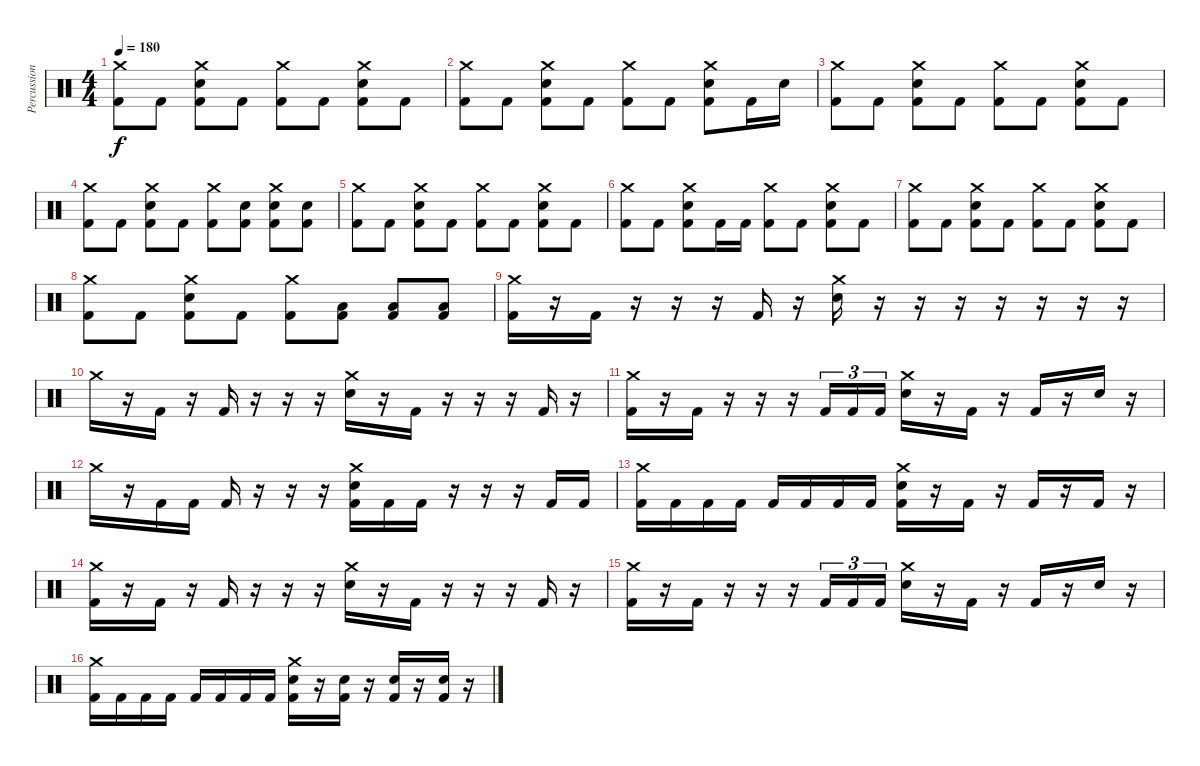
\track ("Percussion" "Percussion") {instrument percussion}
\staff {score}
\articulation defaults
\ts (4 4)
\tempo 180
\clef neutral
\ks c
("Crash medium (hit)" "Kick (hit) 2").8{dy f} "Kick (hit) 2".8 ("Crash medium (hit)" "Electric Snare (hit)" "Kick (hit) 2").8 "Kick (hit) 2".8 ("Crash medium (hit)" "Kick (hit) 2").8 "Kick (hit) 2".8 ("Crash medium (hit)" "Electric Snare (hit)" "Kick (hit) 2").8 "Kick (hit) 2".8 |
("Crash medium (hit)" "Kick (hit) 2").8 "Kick (hit) 2".8 ("Crash medium (hit)" "Electric Snare (hit)" "Kick (hit) 2").8 "Kick (hit) 2".8 ("Crash medium (hit)" "Kick (hit) 2").8 "Kick (hit) 2".8 ("Crash medium (hit)" "Electric Snare (hit)" "Kick (hit) 2").8 "Kick (hit) 2".16 "Electric Snare (hit)".16 |
("Crash medium (hit)" "Kick (hit) 2").8 "Kick (hit) 2".8 ("Crash medium (hit)" "Electric Snare (hit)" "Kick (hit) 2").8 "Kick (hit) 2".8 ("Crash medium (hit)" "Kick (hit) 2").8 "Kick (hit) 2".8 ("Crash medium (hit)" "Electric Snare (hit)" "Kick (hit) 2").8 "Kick (hit) 2".8 |
("Crash medium (hit)" "Kick (hit) 2").8 "Kick (hit) 2".8 ("Crash medium (hit)" "Electric Snare (hit)" "Kick (hit) 2").8 "Kick (hit) 2".8 ("Crash medium (hit)" "Kick (hit) 2").8 ("Electric Snare (hit)" "Kick (hit) 2").8 ("Crash medium (hit)" "Electric Snare (hit)" "Kick (hit) 2").8 ("Electric Snare (hit)" "Kick (hit) 2").8 |
("Crash medium (hit)" "Kick (hit) 2").8 "Kick (hit) 2".8 ("Crash medium (hit)" "Electric Snare (hit)" "Kick (hit) 2").8 "Kick (hit) 2".8 ("Crash medium (hit)" "Kick (hit) 2").8 "Kick (hit) 2".8 ("Crash medium (hit)" "Electric Snare (hit)" "Kick (hit) 2").8 "Kick (hit) 2".8 |
("Crash medium (hit)" "Kick (hit) 2").8 "Kick (hit) 2".8 ("Crash medium (hit)" "Electric Snare (hit)" "Kick (hit) 2").8 "Kick (hit) 2".16 "Kick (hit) 2".16 ("Crash medium (hit)" "Kick (hit) 2").8 "Kick (hit) 2".8 ("Crash medium (hit)" "Electric Snare (hit)" "Kick (hit) 2").8 "Kick (hit) 2".8 |
("Crash medium (hit)" "Kick (hit) 2").8 "Kick (hit) 2".8 ("Crash medium (hit)" "Electric Snare (hit)" "Kick (hit) 2").8 "Kick (hit) 2".8 ("Crash medium (hit)" "Kick (hit) 2").8 "Kick (hit) 2".8 ("Crash medium (hit)" "Electric Snare (hit)" "Kick (hit) 2").8 "Kick (hit) 2".8 |
("Crash medium (hit)" "Kick (hit) 2").8 "Kick (hit) 2".8 ("Crash medium (hit)" "Electric Snare (hit)" "Kick (hit) 2").8 "Kick (hit) 2".8 ("Crash medium (hit)" "Kick (hit) 2").8 ("Low Floor Tom (hit)" "Kick (hit) 2").8 ("Low Floor Tom (hit)" "Kick (hit) 2").8 ("Low Floor Tom (hit)" "Kick (hit) 2").8 |
("Crash medium (hit)" "Kick (hit) 2").16 r.16 "Kick (hit) 2".16 r.16 r.16 r.16 "Kick (hit) 2".16 r.16 ("Crash medium (hit)" "Electric Snare (hit)").16 r.16 r.16 r.16 r.16 r.16 r.16 r.16 |
"Crash medium (hit)".16 r.16 "Kick (hit) 2".16 r.16 "Kick (hit) 2".16 r.16 r.16 r.16 ("Crash medium (hit)" "Electric Snare (hit)").16 r.16 "Kick (hit) 2".16 r.16 r.16 r.16 "Kick (hit) 2".16 r.16 |
("Crash medium (hit)" "Kick (hit) 2").16 r.16 "Kick (hit) 2".16 r.16 r.16 r.16 "Kick (hit) 2".16{tu (3 2)} "Kick (hit) 2".16{tu (3 2)} "Kick (hit) 2".16{tu (3 2)} ("Crash medium (hit)" "Electric Snare (hit)").16 r.16 "Kick (hit) 2".16 r.16 "Kick (hit) 2".16 r.16 "Electric Snare (hit)".16 r.16 |
"Crash medium (hit)".16 r.16 "Kick (hit) 2".16 "Kick (hit) 2".16 "Kick (hit) 2".16 r.16 r.16 r.16 ("Crash medium (hit)" "Electric Snare (hit)" "Kick (hit) 2").16 "Kick (hit) 2".16 "Kick (hit) 2".16 r.16 r.16 r.16 "Kick (hit) 2".16 "Kick (hit) 2".16 |
("Crash medium (hit)" "Kick (hit) 2").16 "Kick (hit) 2".16 "Kick (hit) 2".16 "Kick (hit) 2".16 "Kick (hit) 2".16 "Kick (hit) 2".16 "Kick (hit) 2".16 "Kick (hit) 2".16 ("Crash medium (hit)" "Electric Snare (hit)" "Kick (hit) 2").16 r.16 "Kick (hit) 2".16 r.16 "Kick (hit) 2".16 r.16 "Kick (hit) 2".16 r.16 |
("Crash medium (hit)" "Kick (hit) 2").16 r.16 "Kick (hit) 2".16 r.16 "Kick (hit) 2".16 r.16 r.16 r.16 ("Crash medium (hit)" "Electric Snare (hit)").16 r.16 "Kick (hit) 2".16 r.16 r.16 r.16 "Kick (hit) 2".16 r.16 |
("Crash medium (hit)" "Kick (hit) 2").16 r.16 "Kick (hit) 2".16 r.16 r.16 r.16 "Kick (hit) 2".16{tu (3 2)} "Kick (hit) 2".16{tu (3 2)} "Kick (hit) 2".16{tu (3 2)} ("Crash medium (hit)" "Electric Snare (hit)").16 r.16 "Kick (hit) 2".16 r.16 "Kick (hit) 2".16 r.16 "Electric Snare (hit)".16 r.16 |
("Crash medium (hit)" "Kick (hit) 2").16 "Kick (hit) 2".16 "Kick (hit) 2".16 "Kick (hit) 2".16 "Kick (hit) 2".16 "Kick (hit) 2".16 "Kick (hit) 2".16 "Kick (hit) 2".16 ("Crash medium (hit)" "Electric Snare (hit)" "Kick (hit) 2").16 r.16 ("Electric Snare (hit)" "Kick (hit) 2").16 r.16 ("Electric Snare (hit)" "Kick (hit) 2").16 r.16 ("Electric Snare (hit)" "Kick (hit) 2").16 r.16
